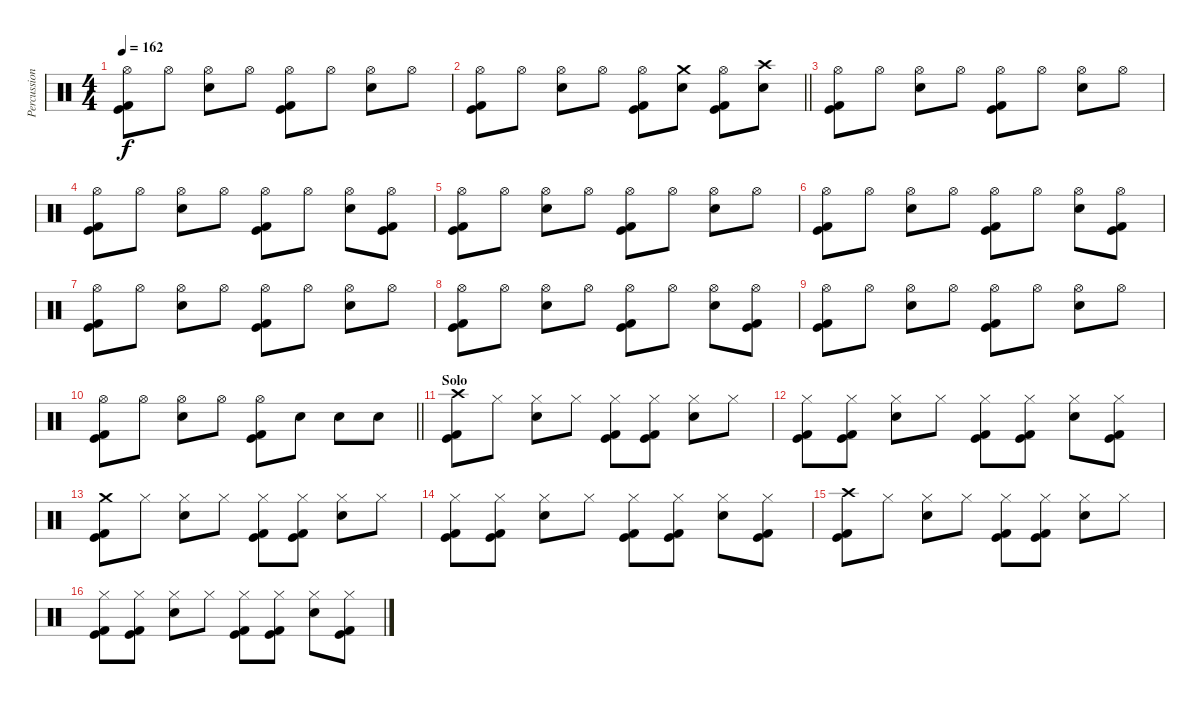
\track ("Percussion" "Percussion") {instrument percussion}
\staff {score}
\articulation defaults
\ts (4 4)
\tempo 162
\clef neutral
\ks c
("Hi-Hat (open)" "Kick (hit)" "Kick (hit) 2").8{dy f} "Hi-Hat (open)".8 ("Hi-Hat (open)" "Electric Snare (hit)").8 "Hi-Hat (open)".8 ("Hi-Hat (open)" "Kick (hit)" "Kick (hit) 2").8 "Hi-Hat (open)".8 ("Hi-Hat (open)" "Electric Snare (hit)").8 "Hi-Hat (open)".8 |
\barLineRight lightlight
("Hi-Hat (open)" "Kick (hit)" "Kick (hit) 2").8 "Hi-Hat (open)".8 ("Hi-Hat (open)" "Electric Snare (hit)").8 "Hi-Hat (open)".8 ("Hi-Hat (open)" "Kick (hit)" "Kick (hit) 2").8 ("Crash medium (hit)" "Electric Snare (hit)").8 ("Hi-Hat (open)" "Kick (hit)" "Kick (hit) 2").8 ("Crash high (hit)" "Electric Snare (hit)").8 |
\section ("" "")
("Hi-Hat (open)" "Kick (hit)" "Kick (hit) 2").8 "Hi-Hat (open)".8 ("Hi-Hat (open)" "Electric Snare (hit)").8 "Hi-Hat (open)".8 ("Hi-Hat (open)" "Kick (hit)" "Kick (hit) 2").8 "Hi-Hat (open)".8 ("Hi-Hat (open)" "Electric Snare (hit)").8 "Hi-Hat (open)".8 |
("Hi-Hat (open)" "Kick (hit)" "Kick (hit) 2").8 "Hi-Hat (open)".8 ("Hi-Hat (open)" "Electric Snare (hit)").8 "Hi-Hat (open)".8 ("Hi-Hat (open)" "Kick (hit)" "Kick (hit) 2").8 "Hi-Hat (open)".8 ("Hi-Hat (open)" "Electric Snare (hit)").8 ("Hi-Hat (open)" "Kick (hit)" "Kick (hit) 2").8 |
("Hi-Hat (open)" "Kick (hit)" "Kick (hit) 2").8 "Hi-Hat (open)".8 ("Hi-Hat (open)" "Electric Snare (hit)").8 "Hi-Hat (open)".8 ("Hi-Hat (open)" "Kick (hit)" "Kick (hit) 2").8 "Hi-Hat (open)".8 ("Hi-Hat (open)" "Electric Snare (hit)").8 "Hi-Hat (open)".8 |
("Hi-Hat (open)" "Kick (hit)" "Kick (hit) 2").8 "Hi-Hat (open)".8 ("Hi-Hat (open)" "Electric Snare (hit)").8 "Hi-Hat (open)".8 ("Hi-Hat (open)" "Kick (hit)" "Kick (hit) 2").8 "Hi-Hat (open)".8 ("Hi-Hat (open)" "Electric Snare (hit)").8 ("Hi-Hat (open)" "Kick (hit)" "Kick (hit) 2").8 |
("Hi-Hat (open)" "Kick (hit)" "Kick (hit) 2").8 "Hi-Hat (open)".8 ("Hi-Hat (open)" "Electric Snare (hit)").8 "Hi-Hat (open)".8 ("Hi-Hat (open)" "Kick (hit)" "Kick (hit) 2").8 "Hi-Hat (open)".8 ("Hi-Hat (open)" "Electric Snare (hit)").8 "Hi-Hat (open)".8 |
("Hi-Hat (open)" "Kick (hit)" "Kick (hit) 2").8 "Hi-Hat (open)".8 ("Hi-Hat (open)" "Electric Snare (hit)").8 "Hi-Hat (open)".8 ("Hi-Hat (open)" "Kick (hit)" "Kick (hit) 2").8 "Hi-Hat (open)".8 ("Hi-Hat (open)" "Electric Snare (hit)").8 ("Hi-Hat (open)" "Kick (hit)" "Kick (hit) 2").8 |
("Hi-Hat (open)" "Kick (hit)" "Kick (hit) 2").8 "Hi-Hat (open)".8 ("Hi-Hat (open)" "Electric Snare (hit)").8 "Hi-Hat (open)".8 ("Hi-Hat (open)" "Kick (hit)" "Kick (hit) 2").8 "Hi-Hat (open)".8 ("Hi-Hat (open)" "Electric Snare (hit)").8 "Hi-Hat (open)".8 |
\barLineRight lightlight
("Hi-Hat (open)" "Kick (hit)" "Kick (hit) 2").8 "Hi-Hat (open)".8 ("Hi-Hat (open)" "Electric Snare (hit)").8 "Hi-Hat (open)".8 ("Hi-Hat (open)" "Kick (hit)" "Kick (hit) 2").8 "Electric Snare (hit)".8 "Electric Snare (hit)".8 "Electric Snare (hit)".8 |
\section ("" "Solo")
("Crash high (hit)" "Kick (hit)" "Kick (hit) 2").8 "Hi-Hat (closed)".8 ("Hi-Hat (closed)" "Electric Snare (hit)").8 "Hi-Hat (closed)".8 ("Hi-Hat (closed)" "Kick (hit)" "Kick (hit) 2").8 ("Hi-Hat (closed)" "Kick (hit)" "Kick (hit) 2").8 ("Hi-Hat (closed)" "Electric Snare (hit)").8 "Hi-Hat (closed)".8 |
("Hi-Hat (closed)" "Kick (hit)" "Kick (hit) 2").8 ("Hi-Hat (closed)" "Kick (hit)" "Kick (hit) 2").8 ("Hi-Hat (closed)" "Electric Snare (hit)").8 "Hi-Hat (closed)".8 ("Hi-Hat (closed)" "Kick (hit)" "Kick (hit) 2").8 ("Hi-Hat (closed)" "Kick (hit)" "Kick (hit) 2").8 ("Hi-Hat (closed)" "Electric Snare (hit)").8 ("Hi-Hat (closed)" "Kick (hit)" "Kick (hit) 2").8 |
("Crash medium (hit)" "Kick (hit)" "Kick (hit) 2").8 "Hi-Hat (closed)".8 ("Hi-Hat (closed)" "Electric Snare (hit)").8 "Hi-Hat (closed)".8 ("Hi-Hat (closed)" "Kick (hit)" "Kick (hit) 2").8 ("Hi-Hat (closed)" "Kick (hit)" "Kick (hit) 2").8 ("Hi-Hat (closed)" "Electric Snare (hit)").8 "Hi-Hat (closed)".8 |
("Hi-Hat (closed)" "Kick (hit)" "Kick (hit) 2").8 ("Hi-Hat (closed)" "Kick (hit)" "Kick (hit) 2").8 ("Hi-Hat (closed)" "Electric Snare (hit)").8 "Hi-Hat (closed)".8 ("Hi-Hat (closed)" "Kick (hit)" "Kick (hit) 2").8 ("Hi-Hat (closed)" "Kick (hit)" "Kick (hit) 2").8 ("Hi-Hat (closed)" "Electric Snare (hit)").8 ("Hi-Hat (closed)" "Kick (hit)" "Kick (hit) 2").8 |
("Crash high (hit)" "Kick (hit)" "Kick (hit) 2").8 "Hi-Hat (closed)".8 ("Hi-Hat (closed)" "Electric Snare (hit)").8 "Hi-Hat (closed)".8 ("Hi-Hat (closed)" "Kick (hit)" "Kick (hit) 2").8 ("Hi-Hat (closed)" "Kick (hit)" "Kick (hit) 2").8 ("Hi-Hat (closed)" "Electric Snare (hit)").8 "Hi-Hat (closed)".8 |
("Hi-Hat (closed)" "Kick (hit)" "Kick (hit) 2").8 ("Hi-Hat (closed)" "Kick (hit)" "Kick (hit) 2").8 ("Hi-Hat (closed)" "Electric Snare (hit)").8 "Hi-Hat (closed)".8 ("Hi-Hat (closed)" "Kick (hit)" "Kick (hit) 2").8 ("Hi-Hat (closed)" "Kick (hit)" "Kick (hit) 2").8 ("Hi-Hat (closed)" "Electric Snare (hit)").8 ("Hi-Hat (closed)" "Kick (hit)" "Kick (hit) 2").8
